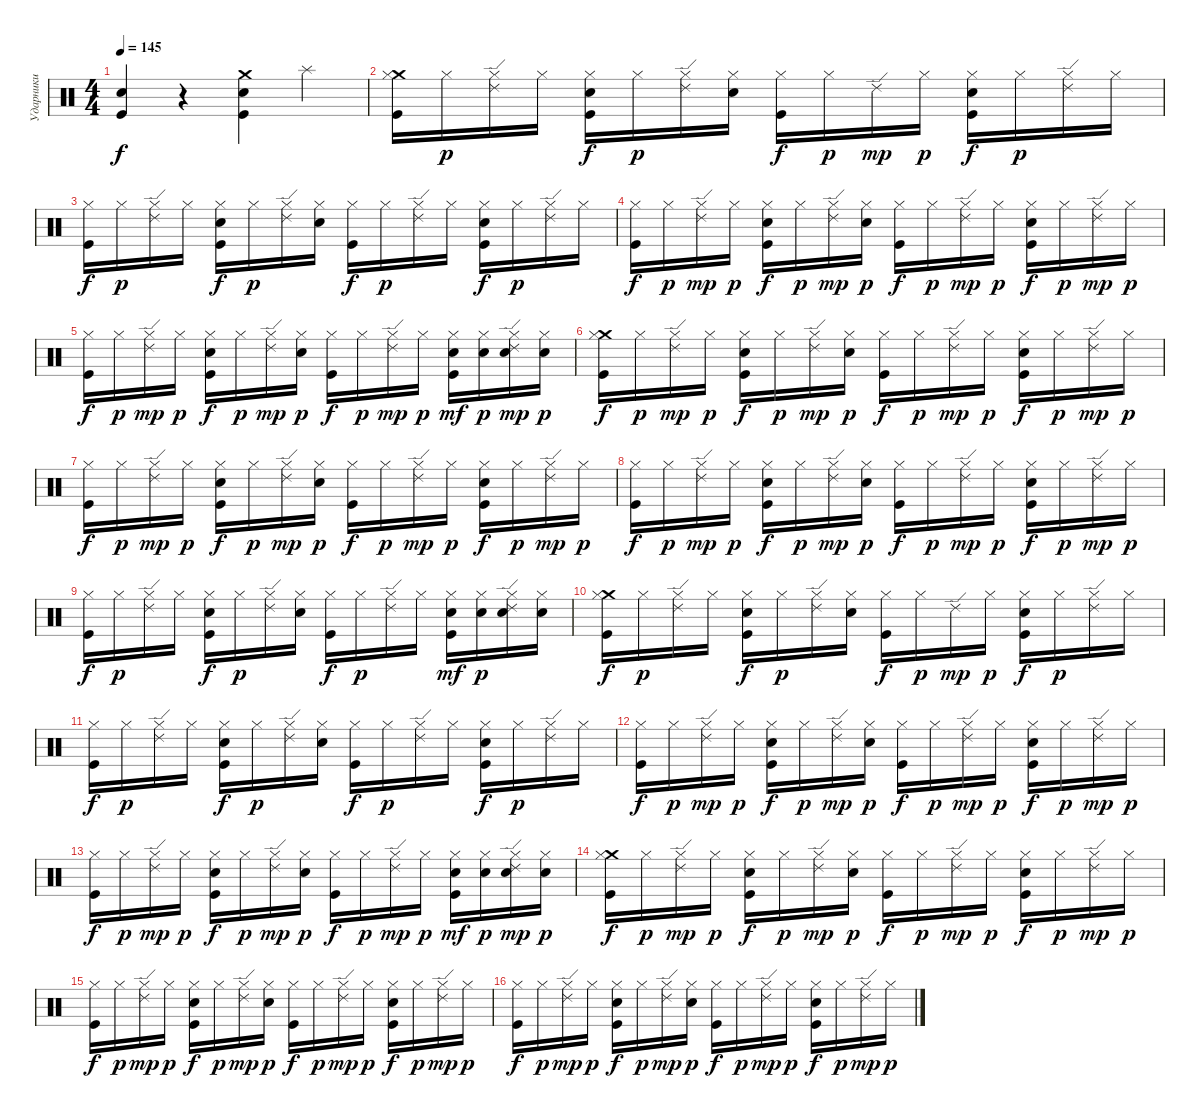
\track ("Ударники" "Ударники") {instrument percussion}
\staff {score}
\articulation defaults
\ts (4 4)
\tempo 145
\clef neutral
\ks c
("Electric Snare (hit)" "Kick (hit)").4{dy f} r.4 ("Crash medium (hit)" "Kick (hit)" "Electric Snare (hit)").4 "Splash (hit)".4 |
("Crash medium (hit)" "Kick (hit)" "Hi-Hat (closed)").16 "Hi-Hat (closed)".16{dy p} ("Ride (edge) 2" "Hi-Hat (closed)").16 "Hi-Hat (closed)".16 ("Electric Snare (hit)" "Kick (hit)" "Hi-Hat (closed)").16{dy f} "Hi-Hat (closed)".16{dy p} ("Ride (edge) 2" "Hi-Hat (closed)").16 ("Electric Snare (hit)" "Hi-Hat (closed)").16 ("Kick (hit)" "Hi-Hat (closed)").16{dy f} "Hi-Hat (closed)".16{dy p} "Ride (edge) 2".16{dy mp} "Hi-Hat (closed)".16{dy p} ("Electric Snare (hit)" "Kick (hit)" "Hi-Hat (closed)").16{dy f} "Hi-Hat (closed)".16{dy p} ("Ride (edge) 2" "Hi-Hat (closed)").16 "Hi-Hat (closed)".16 |
("Kick (hit)" "Hi-Hat (closed)").16{dy f} "Hi-Hat (closed)".16{dy p} ("Ride (edge) 2" "Hi-Hat (closed)").16 "Hi-Hat (closed)".16 ("Electric Snare (hit)" "Kick (hit)" "Hi-Hat (closed)").16{dy f} "Hi-Hat (closed)".16{dy p} ("Ride (edge) 2" "Hi-Hat (closed)").16 ("Electric Snare (hit)" "Hi-Hat (closed)").16 ("Kick (hit)" "Hi-Hat (closed)").16{dy f} "Hi-Hat (closed)".16{dy p} ("Ride (edge) 2" "Hi-Hat (closed)").16 "Hi-Hat (closed)".16 ("Electric Snare (hit)" "Kick (hit)" "Hi-Hat (closed)").16{dy f} "Hi-Hat (closed)".16{dy p} ("Ride (edge) 2" "Hi-Hat (closed)").16 "Hi-Hat (closed)".16 |
("Kick (hit)" "Hi-Hat (closed)").16{dy f} "Hi-Hat (closed)".16{dy p} ("Hi-Hat (closed)" "Ride (edge) 2").16{dy mp} "Hi-Hat (closed)".16{dy p} ("Electric Snare (hit)" "Kick (hit)" "Hi-Hat (closed)").16{dy f} "Hi-Hat (closed)".16{dy p} ("Hi-Hat (closed)" "Ride (edge) 2").16{dy mp} ("Electric Snare (hit)" "Hi-Hat (closed)").16{dy p} ("Kick (hit)" "Hi-Hat (closed)").16{dy f} "Hi-Hat (closed)".16{dy p} ("Hi-Hat (closed)" "Ride (edge) 2").16{dy mp} "Hi-Hat (closed)".16{dy p} ("Electric Snare (hit)" "Kick (hit)" "Hi-Hat (closed)").16{dy f} "Hi-Hat (closed)".16{dy p} ("Hi-Hat (closed)" "Ride (edge) 2").16{dy mp} "Hi-Hat (closed)".16{dy p} |
("Kick (hit)" "Hi-Hat (closed)").16{dy f} "Hi-Hat (closed)".16{dy p} ("Hi-Hat (closed)" "Ride (edge) 2").16{dy mp} "Hi-Hat (closed)".16{dy p} ("Electric Snare (hit)" "Kick (hit)" "Hi-Hat (closed)").16{dy f} "Hi-Hat (closed)".16{dy p} ("Hi-Hat (closed)" "Ride (edge) 2").16{dy mp} ("Electric Snare (hit)" "Hi-Hat (closed)").16{dy p} ("Kick (hit)" "Hi-Hat (closed)").16{dy f} "Hi-Hat (closed)".16{dy p} ("Hi-Hat (closed)" "Ride (edge) 2").16{dy mp} "Hi-Hat (closed)".16{dy p} ("Electric Snare (hit)" "Kick (hit)" "Hi-Hat (closed)").16{dy mf} ("Electric Snare (hit)" "Hi-Hat (closed)").16{dy p} ("Electric Snare (hit)" "Hi-Hat (closed)" "Ride (edge) 2").16{dy mp} ("Electric Snare (hit)" "Hi-Hat (closed)").16{dy p} |
("Crash medium (hit)" "Kick (hit)" "Hi-Hat (closed)").16{dy f} "Hi-Hat (closed)".16{dy p} ("Hi-Hat (closed)" "Ride (edge) 2").16{dy mp} "Hi-Hat (closed)".16{dy p} ("Electric Snare (hit)" "Kick (hit)" "Hi-Hat (closed)").16{dy f} "Hi-Hat (closed)".16{dy p} ("Hi-Hat (closed)" "Ride (edge) 2").16{dy mp} ("Electric Snare (hit)" "Hi-Hat (closed)").16{dy p} ("Kick (hit)" "Hi-Hat (closed)").16{dy f} "Hi-Hat (closed)".16{dy p} ("Hi-Hat (closed)" "Ride (edge) 2").16{dy mp} "Hi-Hat (closed)".16{dy p} ("Electric Snare (hit)" "Kick (hit)" "Hi-Hat (closed)").16{dy f} "Hi-Hat (closed)".16{dy p} ("Hi-Hat (closed)" "Ride (edge) 2").16{dy mp} "Hi-Hat (closed)".16{dy p} |
("Kick (hit)" "Hi-Hat (closed)").16{dy f} "Hi-Hat (closed)".16{dy p} ("Hi-Hat (closed)" "Ride (edge) 2").16{dy mp} "Hi-Hat (closed)".16{dy p} ("Electric Snare (hit)" "Kick (hit)" "Hi-Hat (closed)").16{dy f} "Hi-Hat (closed)".16{dy p} ("Hi-Hat (closed)" "Ride (edge) 2").16{dy mp} ("Electric Snare (hit)" "Hi-Hat (closed)").16{dy p} ("Kick (hit)" "Hi-Hat (closed)").16{dy f} "Hi-Hat (closed)".16{dy p} ("Hi-Hat (closed)" "Ride (edge) 2").16{dy mp} "Hi-Hat (closed)".16{dy p} ("Electric Snare (hit)" "Kick (hit)" "Hi-Hat (closed)").16{dy f} "Hi-Hat (closed)".16{dy p} ("Hi-Hat (closed)" "Ride (edge) 2").16{dy mp} "Hi-Hat (closed)".16{dy p} |
("Kick (hit)" "Hi-Hat (closed)").16{dy f} "Hi-Hat (closed)".16{dy p} ("Hi-Hat (closed)" "Ride (edge) 2").16{dy mp} "Hi-Hat (closed)".16{dy p} ("Electric Snare (hit)" "Kick (hit)" "Hi-Hat (closed)").16{dy f} "Hi-Hat (closed)".16{dy p} ("Hi-Hat (closed)" "Ride (edge) 2").16{dy mp} ("Electric Snare (hit)" "Hi-Hat (closed)").16{dy p} ("Kick (hit)" "Hi-Hat (closed)").16{dy f} "Hi-Hat (closed)".16{dy p} ("Hi-Hat (closed)" "Ride (edge) 2").16{dy mp} "Hi-Hat (closed)".16{dy p} ("Electric Snare (hit)" "Kick (hit)" "Hi-Hat (closed)").16{dy f} "Hi-Hat (closed)".16{dy p} ("Hi-Hat (closed)" "Ride (edge) 2").16{dy mp} "Hi-Hat (closed)".16{dy p} |
("Kick (hit)" "Hi-Hat (closed)").16{dy f} "Hi-Hat (closed)".16{dy p} ("Ride (edge) 2" "Hi-Hat (closed)").16 "Hi-Hat (closed)".16 ("Electric Snare (hit)" "Kick (hit)" "Hi-Hat (closed)").16{dy f} "Hi-Hat (closed)".16{dy p} ("Ride (edge) 2" "Hi-Hat (closed)").16 ("Electric Snare (hit)" "Hi-Hat (closed)").16 ("Kick (hit)" "Hi-Hat (closed)").16{dy f} "Hi-Hat (closed)".16{dy p} ("Ride (edge) 2" "Hi-Hat (closed)").16 "Hi-Hat (closed)".16 ("Electric Snare (hit)" "Kick (hit)" "Hi-Hat (closed)").16{dy mf} ("Electric Snare (hit)" "Hi-Hat (closed)").16{dy p} ("Electric Snare (hit)" "Ride (edge) 2" "Hi-Hat (closed)").16 ("Electric Snare (hit)" "Hi-Hat (closed)").16 |
("Crash medium (hit)" "Kick (hit)" "Hi-Hat (closed)").16{dy f} "Hi-Hat (closed)".16{dy p} ("Ride (edge) 2" "Hi-Hat (closed)").16 "Hi-Hat (closed)".16 ("Electric Snare (hit)" "Kick (hit)" "Hi-Hat (closed)").16{dy f} "Hi-Hat (closed)".16{dy p} ("Ride (edge) 2" "Hi-Hat (closed)").16 ("Electric Snare (hit)" "Hi-Hat (closed)").16 ("Kick (hit)" "Hi-Hat (closed)").16{dy f} "Hi-Hat (closed)".16{dy p} "Ride (edge) 2".16{dy mp} "Hi-Hat (closed)".16{dy p} ("Electric Snare (hit)" "Kick (hit)" "Hi-Hat (closed)").16{dy f} "Hi-Hat (closed)".16{dy p} ("Ride (edge) 2" "Hi-Hat (closed)").16 "Hi-Hat (closed)".16 |
("Kick (hit)" "Hi-Hat (closed)").16{dy f} "Hi-Hat (closed)".16{dy p} ("Ride (edge) 2" "Hi-Hat (closed)").16 "Hi-Hat (closed)".16 ("Electric Snare (hit)" "Kick (hit)" "Hi-Hat (closed)").16{dy f} "Hi-Hat (closed)".16{dy p} ("Ride (edge) 2" "Hi-Hat (closed)").16 ("Electric Snare (hit)" "Hi-Hat (closed)").16 ("Kick (hit)" "Hi-Hat (closed)").16{dy f} "Hi-Hat (closed)".16{dy p} ("Ride (edge) 2" "Hi-Hat (closed)").16 "Hi-Hat (closed)".16 ("Electric Snare (hit)" "Kick (hit)" "Hi-Hat (closed)").16{dy f} "Hi-Hat (closed)".16{dy p} ("Ride (edge) 2" "Hi-Hat (closed)").16 "Hi-Hat (closed)".16 |
("Kick (hit)" "Hi-Hat (closed)").16{dy f} "Hi-Hat (closed)".16{dy p} ("Hi-Hat (closed)" "Ride (edge) 2").16{dy mp} "Hi-Hat (closed)".16{dy p} ("Electric Snare (hit)" "Kick (hit)" "Hi-Hat (closed)").16{dy f} "Hi-Hat (closed)".16{dy p} ("Hi-Hat (closed)" "Ride (edge) 2").16{dy mp} ("Electric Snare (hit)" "Hi-Hat (closed)").16{dy p} ("Kick (hit)" "Hi-Hat (closed)").16{dy f} "Hi-Hat (closed)".16{dy p} ("Hi-Hat (closed)" "Ride (edge) 2").16{dy mp} "Hi-Hat (closed)".16{dy p} ("Electric Snare (hit)" "Kick (hit)" "Hi-Hat (closed)").16{dy f} "Hi-Hat (closed)".16{dy p} ("Hi-Hat (closed)" "Ride (edge) 2").16{dy mp} "Hi-Hat (closed)".16{dy p} |
("Kick (hit)" "Hi-Hat (closed)").16{dy f} "Hi-Hat (closed)".16{dy p} ("Hi-Hat (closed)" "Ride (edge) 2").16{dy mp} "Hi-Hat (closed)".16{dy p} ("Electric Snare (hit)" "Kick (hit)" "Hi-Hat (closed)").16{dy f} "Hi-Hat (closed)".16{dy p} ("Hi-Hat (closed)" "Ride (edge) 2").16{dy mp} ("Electric Snare (hit)" "Hi-Hat (closed)").16{dy p} ("Kick (hit)" "Hi-Hat (closed)").16{dy f} "Hi-Hat (closed)".16{dy p} ("Hi-Hat (closed)" "Ride (edge) 2").16{dy mp} "Hi-Hat (closed)".16{dy p} ("Electric Snare (hit)" "Kick (hit)" "Hi-Hat (closed)").16{dy mf} ("Electric Snare (hit)" "Hi-Hat (closed)").16{dy p} ("Electric Snare (hit)" "Hi-Hat (closed)" "Ride (edge) 2").16{dy mp} ("Electric Snare (hit)" "Hi-Hat (closed)").16{dy p} |
("Crash medium (hit)" "Kick (hit)" "Hi-Hat (closed)").16{dy f} "Hi-Hat (closed)".16{dy p} ("Hi-Hat (closed)" "Ride (edge) 2").16{dy mp} "Hi-Hat (closed)".16{dy p} ("Electric Snare (hit)" "Kick (hit)" "Hi-Hat (closed)").16{dy f} "Hi-Hat (closed)".16{dy p} ("Hi-Hat (closed)" "Ride (edge) 2").16{dy mp} ("Electric Snare (hit)" "Hi-Hat (closed)").16{dy p} ("Kick (hit)" "Hi-Hat (closed)").16{dy f} "Hi-Hat (closed)".16{dy p} ("Hi-Hat (closed)" "Ride (edge) 2").16{dy mp} "Hi-Hat (closed)".16{dy p} ("Electric Snare (hit)" "Kick (hit)" "Hi-Hat (closed)").16{dy f} "Hi-Hat (closed)".16{dy p} ("Hi-Hat (closed)" "Ride (edge) 2").16{dy mp} "Hi-Hat (closed)".16{dy p} |
("Kick (hit)" "Hi-Hat (closed)").16{dy f} "Hi-Hat (closed)".16{dy p} ("Hi-Hat (closed)" "Ride (edge) 2").16{dy mp} "Hi-Hat (closed)".16{dy p} ("Electric Snare (hit)" "Kick (hit)" "Hi-Hat (closed)").16{dy f} "Hi-Hat (closed)".16{dy p} ("Hi-Hat (closed)" "Ride (edge) 2").16{dy mp} ("Electric Snare (hit)" "Hi-Hat (closed)").16{dy p} ("Kick (hit)" "Hi-Hat (closed)").16{dy f} "Hi-Hat (closed)".16{dy p} ("Hi-Hat (closed)" "Ride (edge) 2").16{dy mp} "Hi-Hat (closed)".16{dy p} ("Electric Snare (hit)" "Kick (hit)" "Hi-Hat (closed)").16{dy f} "Hi-Hat (closed)".16{dy p} ("Hi-Hat (closed)" "Ride (edge) 2").16{dy mp} "Hi-Hat (closed)".16{dy p} |
("Kick (hit)" "Hi-Hat (closed)").16{dy f} "Hi-Hat (closed)".16{dy p} ("Hi-Hat (closed)" "Ride (edge) 2").16{dy mp} "Hi-Hat (closed)".16{dy p} ("Electric Snare (hit)" "Kick (hit)" "Hi-Hat (closed)").16{dy f} "Hi-Hat (closed)".16{dy p} ("Hi-Hat (closed)" "Ride (edge) 2").16{dy mp} ("Electric Snare (hit)" "Hi-Hat (closed)").16{dy p} ("Kick (hit)" "Hi-Hat (closed)").16{dy f} "Hi-Hat (closed)".16{dy p} ("Hi-Hat (closed)" "Ride (edge) 2").16{dy mp} "Hi-Hat (closed)".16{dy p} ("Electric Snare (hit)" "Kick (hit)" "Hi-Hat (closed)").16{dy f} "Hi-Hat (closed)".16{dy p} ("Hi-Hat (closed)" "Ride (edge) 2").16{dy mp} "Hi-Hat (closed)".16{dy p}
